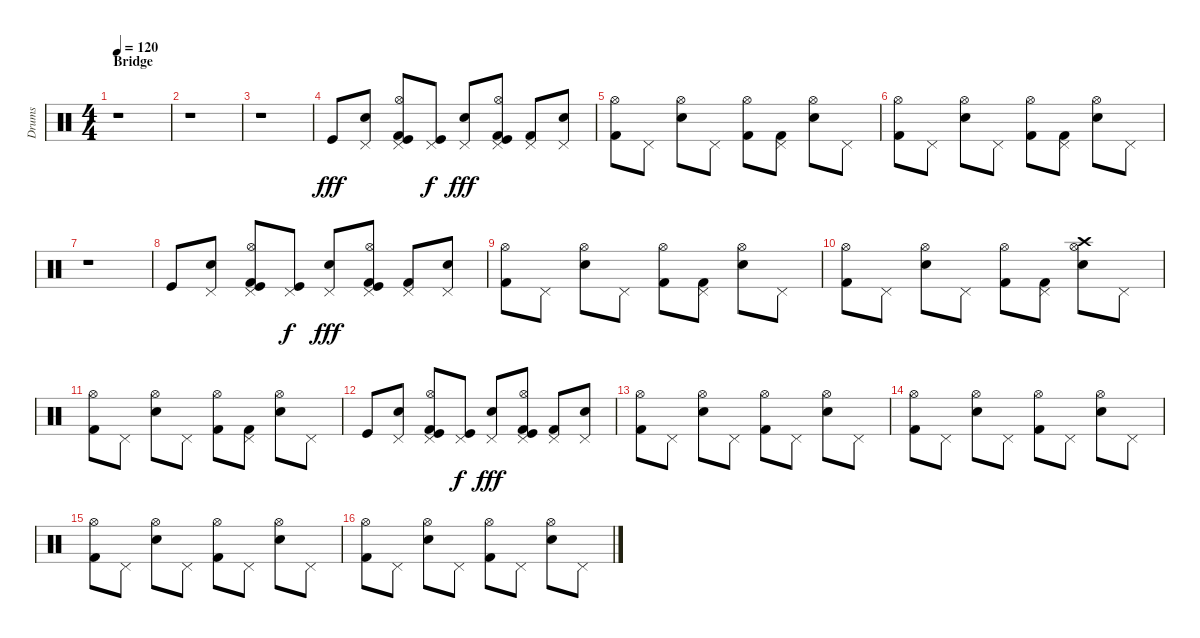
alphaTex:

\track ("Drums" "Drums") {instrument percussion}
\staff {score}
\articulation defaults
\ts (4 4)
\section ("" "Bridge")
\tempo 120
\clef neutral
\ks c
r.1{dy fff} |
r.1 |
r.1 |
"Kick (hit)".8 ("Pedal Hi-Hat (hit)" "Snare (hit) 2").8 ("Hi-Hat (open)" "Pedal Hi-Hat (hit)" "Kick (hit)" "Kick (hit) 2").8 ("Kick (hit)" "Pedal Hi-Hat (hit)").8{dy f} ("Pedal Hi-Hat (hit)" "Snare (hit) 2").8{dy fff} ("Hi-Hat (open)" "Pedal Hi-Hat (hit)" "Kick (hit)" "Kick (hit) 2").8 ("Pedal Hi-Hat (hit)" "Kick (hit) 2").8 ("Pedal Hi-Hat (hit)" "Snare (hit) 2").8 |
("Hi-Hat (open)" "Kick (hit) 2").8 "Pedal Hi-Hat (hit)".8 ("Hi-Hat (open)" "Snare (hit) 2").8 "Pedal Hi-Hat (hit)".8 ("Hi-Hat (open)" "Kick (hit) 2").8 ("Pedal Hi-Hat (hit)" "Kick (hit) 2").8 ("Hi-Hat (open)" "Snare (hit) 2").8 "Pedal Hi-Hat (hit)".8 |
("Hi-Hat (open)" "Kick (hit) 2").8 "Pedal Hi-Hat (hit)".8 ("Hi-Hat (open)" "Snare (hit) 2").8 "Pedal Hi-Hat (hit)".8 ("Hi-Hat (open)" "Kick (hit) 2").8 ("Pedal Hi-Hat (hit)" "Kick (hit) 2").8 ("Hi-Hat (open)" "Snare (hit) 2").8 "Pedal Hi-Hat (hit)".8 |
r.1 |
"Kick (hit)".8 ("Pedal Hi-Hat (hit)" "Snare (hit) 2").8 ("Hi-Hat (open)" "Pedal Hi-Hat (hit)" "Kick (hit)" "Kick (hit) 2").8 ("Kick (hit)" "Pedal Hi-Hat (hit)").8{dy f} ("Pedal Hi-Hat (hit)" "Snare (hit) 2").8{dy fff} ("Hi-Hat (open)" "Pedal Hi-Hat (hit)" "Kick (hit)" "Kick (hit) 2").8 ("Pedal Hi-Hat (hit)" "Kick (hit) 2").8 ("Pedal Hi-Hat (hit)" "Snare (hit) 2").8 |
("Hi-Hat (open)" "Kick (hit) 2").8 "Pedal Hi-Hat (hit)".8 ("Hi-Hat (open)" "Snare (hit) 2").8 "Pedal Hi-Hat (hit)".8 ("Hi-Hat (open)" "Kick (hit) 2").8 ("Pedal Hi-Hat (hit)" "Kick (hit) 2").8 ("Hi-Hat (open)" "Snare (hit) 2").8 "Pedal Hi-Hat (hit)".8 |
("Hi-Hat (open)" "Kick (hit) 2").8 "Pedal Hi-Hat (hit)".8 ("Hi-Hat (open)" "Snare (hit) 2").8 "Pedal Hi-Hat (hit)".8 ("Hi-Hat (open)" "Kick (hit) 2").8 ("Pedal Hi-Hat (hit)" "Kick (hit) 2").8 ("Hi-Hat (open)" "Snare (hit) 2" "Crash high (hit)").8 "Pedal Hi-Hat (hit)".8 |
("Hi-Hat (open)" "Kick (hit) 2").8 "Pedal Hi-Hat (hit)".8 ("Hi-Hat (open)" "Snare (hit) 2").8 "Pedal Hi-Hat (hit)".8 ("Hi-Hat (open)" "Kick (hit) 2").8 ("Pedal Hi-Hat (hit)" "Kick (hit) 2").8 ("Hi-Hat (open)" "Snare (hit) 2").8 "Pedal Hi-Hat (hit)".8 |
"Kick (hit)".8 ("Pedal Hi-Hat (hit)" "Snare (hit) 2").8 ("Hi-Hat (open)" "Pedal Hi-Hat (hit)" "Kick (hit)" "Kick (hit) 2").8 ("Kick (hit)" "Pedal Hi-Hat (hit)").8{dy f} ("Pedal Hi-Hat (hit)" "Snare (hit) 2").8{dy fff} ("Hi-Hat (open)" "Pedal Hi-Hat (hit)" "Kick (hit)" "Kick (hit) 2").8 ("Pedal Hi-Hat (hit)" "Kick (hit) 2").8 ("Pedal Hi-Hat (hit)" "Snare (hit) 2").8 |
("Hi-Hat (open)" "Kick (hit) 2").8 "Pedal Hi-Hat (hit)".8 ("Hi-Hat (open)" "Snare (hit) 2").8 "Pedal Hi-Hat (hit)".8 ("Hi-Hat (open)" "Kick (hit) 2").8 "Pedal Hi-Hat (hit)".8 ("Hi-Hat (open)" "Snare (hit) 2").8 "Pedal Hi-Hat (hit)".8 |
("Hi-Hat (open)" "Kick (hit) 2").8 "Pedal Hi-Hat (hit)".8 ("Hi-Hat (open)" "Snare (hit) 2").8 "Pedal Hi-Hat (hit)".8 ("Hi-Hat (open)" "Kick (hit) 2").8 "Pedal Hi-Hat (hit)".8 ("Hi-Hat (open)" "Snare (hit) 2").8 "Pedal Hi-Hat (hit)".8 |
("Hi-Hat (open)" "Kick (hit) 2").8 "Pedal Hi-Hat (hit)".8 ("Hi-Hat (open)" "Snare (hit) 2").8 "Pedal Hi-Hat (hit)".8 ("Hi-Hat (open)" "Kick (hit) 2").8 "Pedal Hi-Hat (hit)".8 ("Hi-Hat (open)" "Snare (hit) 2").8 "Pedal Hi-Hat (hit)".8 |
("Hi-Hat (open)" "Kick (hit) 2").8 "Pedal Hi-Hat (hit)".8 ("Hi-Hat (open)" "Snare (hit) 2").8 "Pedal Hi-Hat (hit)".8 ("Hi-Hat (open)" "Kick (hit) 2").8 "Pedal Hi-Hat (hit)".8 ("Hi-Hat (open)" "Snare (hit) 2").8 "Pedal Hi-Hat (hit)".8
